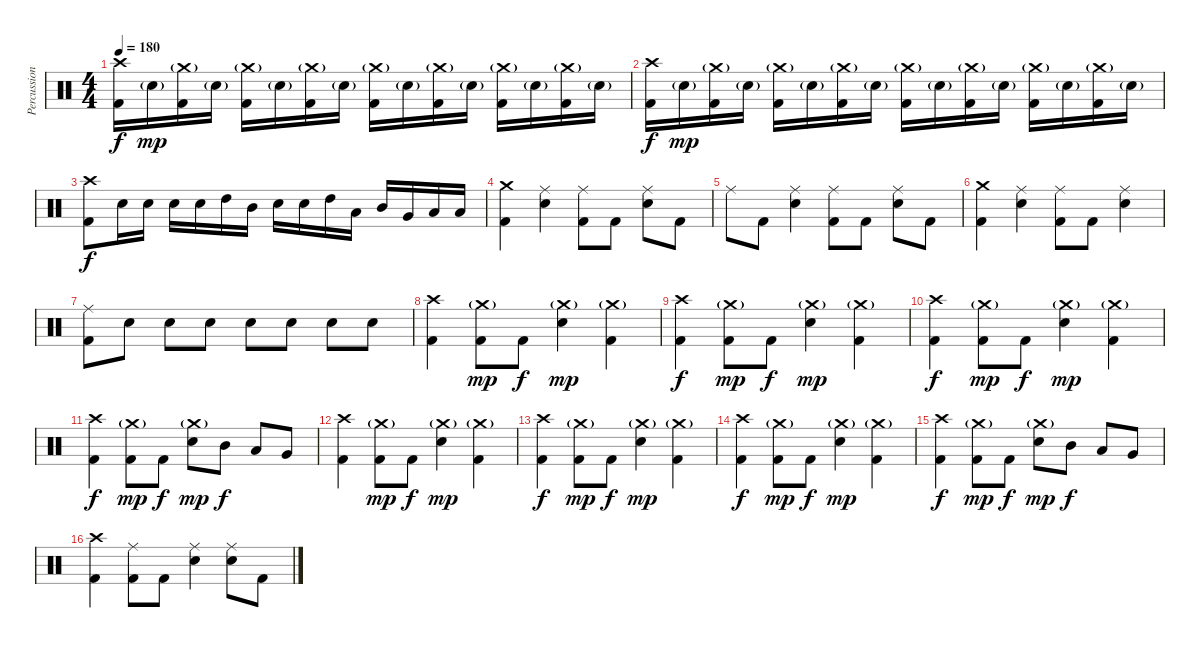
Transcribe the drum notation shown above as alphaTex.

\track ("Percussion" "Percussion") {instrument percussion}
\staff {score}
\articulation defaults
\ts (4 4)
\tempo 180
\clef neutral
\ks c
("Crash high (hit)" "Kick (hit) 2").16{dy f} "Electric Snare (hit)"{g}.16{dy mp} ("Crash medium (hit)"{g} "Kick (hit) 2").16 "Electric Snare (hit)"{g}.16 ("Crash medium (hit)"{g} "Kick (hit) 2").16 "Electric Snare (hit)"{g}.16 ("Crash medium (hit)"{g} "Kick (hit) 2").16 "Electric Snare (hit)"{g}.16 ("Crash medium (hit)"{g} "Kick (hit) 2").16 "Electric Snare (hit)"{g}.16 ("Crash medium (hit)"{g} "Kick (hit) 2").16 "Electric Snare (hit)"{g}.16 ("Crash medium (hit)"{g} "Kick (hit) 2").16 "Electric Snare (hit)"{g}.16 ("Crash medium (hit)"{g} "Kick (hit) 2").16 "Electric Snare (hit)"{g}.16 |
("Crash high (hit)" "Kick (hit) 2").16{dy f} "Electric Snare (hit)"{g}.16{dy mp} ("Crash medium (hit)"{g} "Kick (hit) 2").16 "Electric Snare (hit)"{g}.16 ("Crash medium (hit)"{g} "Kick (hit) 2").16 "Electric Snare (hit)"{g}.16 ("Crash medium (hit)"{g} "Kick (hit) 2").16 "Electric Snare (hit)"{g}.16 ("Crash medium (hit)"{g} "Kick (hit) 2").16 "Electric Snare (hit)"{g}.16 ("Crash medium (hit)"{g} "Kick (hit) 2").16 "Electric Snare (hit)"{g}.16 ("Crash medium (hit)"{g} "Kick (hit) 2").16 "Electric Snare (hit)"{g}.16 ("Crash medium (hit)"{g} "Kick (hit) 2").16 "Electric Snare (hit)"{g}.16 |
("Crash high (hit)" "Kick (hit) 2").8{dy f} "Electric Snare (hit)".16 "Electric Snare (hit)".16 "Electric Snare (hit)".16 "Electric Snare (hit)".16 "High Tom (hit)".16 "Mid Tom (hit)".16 "Electric Snare (hit)".16 "Electric Snare (hit)".16 "High Tom (hit)".16 "Low Tom (hit)".16 "Mid Tom (hit)".16 "Very Low Tom (hit)".16 "Low Tom (hit)".16 "Low Floor Tom (hit)".16 |
("Crash medium (hit)" "Kick (hit) 2").4 ("Ride (middle)" "Electric Snare (hit)").4 ("Ride (middle)" "Kick (hit) 2").8 "Kick (hit) 2".8 ("Ride (middle)" "Electric Snare (hit)").8 "Kick (hit) 2".8 |
"Ride (middle)".8 "Kick (hit) 2".8 ("Ride (middle)" "Electric Snare (hit)").4 ("Ride (middle)" "Kick (hit) 2").8 "Kick (hit) 2".8 ("Ride (middle)" "Electric Snare (hit)").8 "Kick (hit) 2".8 |
("Crash medium (hit)" "Kick (hit) 2").4 ("Ride (middle)" "Electric Snare (hit)").4 ("Ride (middle)" "Kick (hit) 2").8 "Kick (hit) 2".8 ("Ride (middle)" "Electric Snare (hit)").4 |
("Ride (middle)" "Kick (hit) 2").8 "Electric Snare (hit)".8 "Electric Snare (hit)".8 "Electric Snare (hit)".8 "Electric Snare (hit)".8 "Electric Snare (hit)".8 "Electric Snare (hit)".8 "Electric Snare (hit)".8 |
("Crash high (hit)" "Kick (hit) 2").4 ("Crash medium (hit)"{g} "Kick (hit) 2").8{dy mp} "Kick (hit) 2".8{dy f} ("Crash medium (hit)"{g} "Electric Snare (hit)").4{dy mp} ("Crash medium (hit)"{g} "Kick (hit) 2").4 |
("Crash high (hit)" "Kick (hit) 2").4{dy f} ("Crash medium (hit)"{g} "Kick (hit) 2").8{dy mp} "Kick (hit) 2".8{dy f} ("Crash medium (hit)"{g} "Electric Snare (hit)").4{dy mp} ("Crash medium (hit)"{g} "Kick (hit) 2").4 |
("Crash high (hit)" "Kick (hit) 2").4{dy f} ("Crash medium (hit)"{g} "Kick (hit) 2").8{dy mp} "Kick (hit) 2".8{dy f} ("Crash medium (hit)"{g} "Electric Snare (hit)").4{dy mp} ("Crash medium (hit)"{g} "Kick (hit) 2").4 |
("Crash high (hit)" "Kick (hit) 2").4{dy f} ("Crash medium (hit)"{g} "Kick (hit) 2").8{dy mp} "Kick (hit) 2".8{dy f} ("Crash medium (hit)"{g} "Electric Snare (hit)").8{dy mp} "Mid Tom (hit)".8{dy f} "Low Tom (hit)".8 "Very Low Tom (hit)".8 |
("Crash high (hit)" "Kick (hit) 2").4 ("Crash medium (hit)"{g} "Kick (hit) 2").8{dy mp} "Kick (hit) 2".8{dy f} ("Crash medium (hit)"{g} "Electric Snare (hit)").4{dy mp} ("Crash medium (hit)"{g} "Kick (hit) 2").4 |
("Crash high (hit)" "Kick (hit) 2").4{dy f} ("Crash medium (hit)"{g} "Kick (hit) 2").8{dy mp} "Kick (hit) 2".8{dy f} ("Crash medium (hit)"{g} "Electric Snare (hit)").4{dy mp} ("Crash medium (hit)"{g} "Kick (hit) 2").4 |
("Crash high (hit)" "Kick (hit) 2").4{dy f} ("Crash medium (hit)"{g} "Kick (hit) 2").8{dy mp} "Kick (hit) 2".8{dy f} ("Crash medium (hit)"{g} "Electric Snare (hit)").4{dy mp} ("Crash medium (hit)"{g} "Kick (hit) 2").4 |
("Crash high (hit)" "Kick (hit) 2").4{dy f} ("Crash medium (hit)"{g} "Kick (hit) 2").8{dy mp} "Kick (hit) 2".8{dy f} ("Crash medium (hit)"{g} "Electric Snare (hit)").8{dy mp} "Mid Tom (hit)".8{dy f} "Low Tom (hit)".8 "Very Low Tom (hit)".8 |
("Crash high (hit)" "Kick (hit) 2").4 ("Ride (middle)" "Kick (hit) 2").8 "Kick (hit) 2".8 ("Ride (middle)" "Electric Snare (hit)").4 ("Ride (middle)" "Electric Snare (hit)").8 "Kick (hit) 2".8
